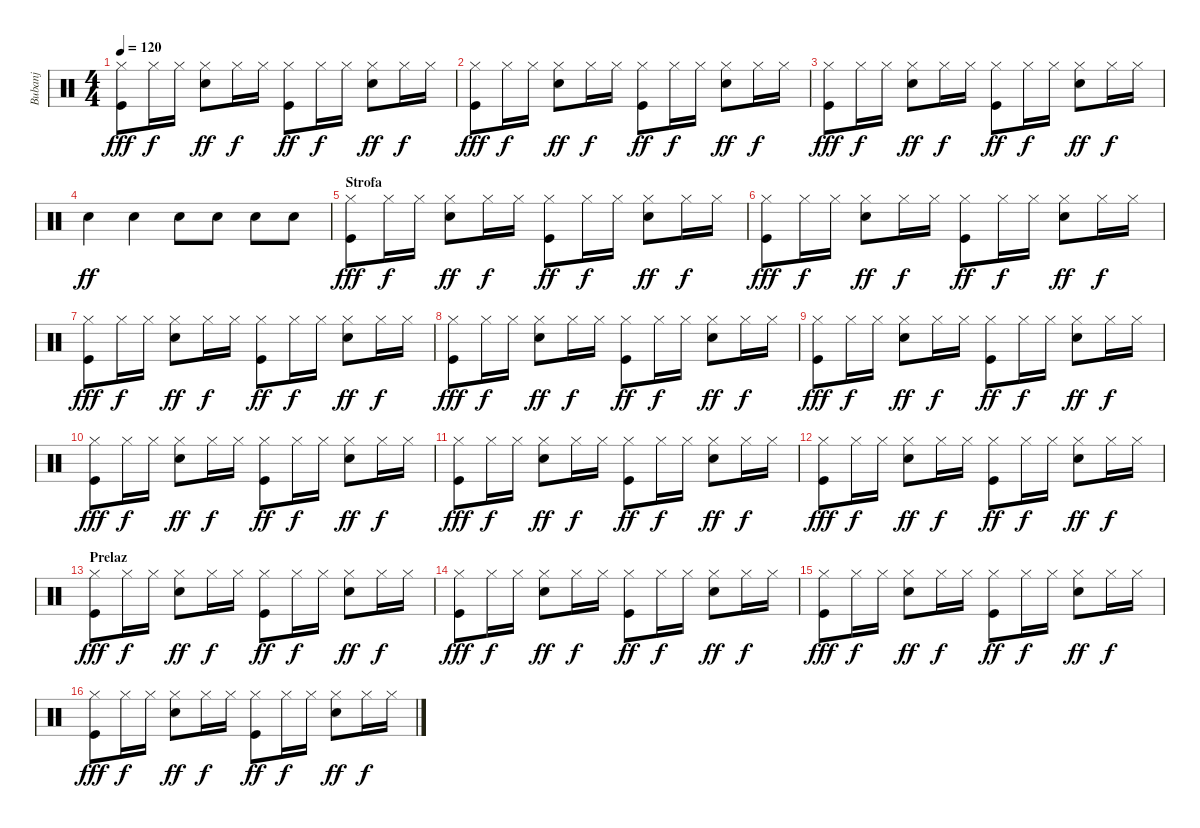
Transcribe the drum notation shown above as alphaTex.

\track ("Bubanj" "Bubanj") {instrument percussion}
\staff {score}
\articulation defaults
\ts (4 4)
\tempo 120
\clef neutral
\ks c
("Kick (hit)" "Hi-Hat (closed)").8{dy fff} "Hi-Hat (closed)".16{dy f} "Hi-Hat (closed)".16 ("Electric Snare (hit)" "Hi-Hat (closed)").8{dy ff} "Hi-Hat (closed)".16{dy f} "Hi-Hat (closed)".16 ("Kick (hit)" "Hi-Hat (closed)").8{dy ff} "Hi-Hat (closed)".16{dy f} "Hi-Hat (closed)".16 ("Electric Snare (hit)" "Hi-Hat (closed)").8{dy ff} "Hi-Hat (closed)".16{dy f} "Hi-Hat (closed)".16 |
("Kick (hit)" "Hi-Hat (closed)").8{dy fff} "Hi-Hat (closed)".16{dy f} "Hi-Hat (closed)".16 ("Electric Snare (hit)" "Hi-Hat (closed)").8{dy ff} "Hi-Hat (closed)".16{dy f} "Hi-Hat (closed)".16 ("Kick (hit)" "Hi-Hat (closed)").8{dy ff} "Hi-Hat (closed)".16{dy f} "Hi-Hat (closed)".16 ("Electric Snare (hit)" "Hi-Hat (closed)").8{dy ff} "Hi-Hat (closed)".16{dy f} "Hi-Hat (closed)".16 |
("Kick (hit)" "Hi-Hat (closed)").8{dy fff} "Hi-Hat (closed)".16{dy f} "Hi-Hat (closed)".16 ("Electric Snare (hit)" "Hi-Hat (closed)").8{dy ff} "Hi-Hat (closed)".16{dy f} "Hi-Hat (closed)".16 ("Kick (hit)" "Hi-Hat (closed)").8{dy ff} "Hi-Hat (closed)".16{dy f} "Hi-Hat (closed)".16 ("Electric Snare (hit)" "Hi-Hat (closed)").8{dy ff} "Hi-Hat (closed)".16{dy f} "Hi-Hat (closed)".16 |
"Electric Snare (hit)".4{dy ff} "Electric Snare (hit)".4 "Electric Snare (hit)".8 "Electric Snare (hit)".8 "Electric Snare (hit)".8 "Electric Snare (hit)".8 |
\section ("" "Strofa")
("Kick (hit)" "Hi-Hat (closed)").8{dy fff} "Hi-Hat (closed)".16{dy f} "Hi-Hat (closed)".16 ("Electric Snare (hit)" "Hi-Hat (closed)").8{dy ff} "Hi-Hat (closed)".16{dy f} "Hi-Hat (closed)".16 ("Kick (hit)" "Hi-Hat (closed)").8{dy ff} "Hi-Hat (closed)".16{dy f} "Hi-Hat (closed)".16 ("Electric Snare (hit)" "Hi-Hat (closed)").8{dy ff} "Hi-Hat (closed)".16{dy f} "Hi-Hat (closed)".16 |
("Kick (hit)" "Hi-Hat (closed)").8{dy fff} "Hi-Hat (closed)".16{dy f} "Hi-Hat (closed)".16 ("Electric Snare (hit)" "Hi-Hat (closed)").8{dy ff} "Hi-Hat (closed)".16{dy f} "Hi-Hat (closed)".16 ("Kick (hit)" "Hi-Hat (closed)").8{dy ff} "Hi-Hat (closed)".16{dy f} "Hi-Hat (closed)".16 ("Electric Snare (hit)" "Hi-Hat (closed)").8{dy ff} "Hi-Hat (closed)".16{dy f} "Hi-Hat (closed)".16 |
("Kick (hit)" "Hi-Hat (closed)").8{dy fff} "Hi-Hat (closed)".16{dy f} "Hi-Hat (closed)".16 ("Electric Snare (hit)" "Hi-Hat (closed)").8{dy ff} "Hi-Hat (closed)".16{dy f} "Hi-Hat (closed)".16 ("Kick (hit)" "Hi-Hat (closed)").8{dy ff} "Hi-Hat (closed)".16{dy f} "Hi-Hat (closed)".16 ("Electric Snare (hit)" "Hi-Hat (closed)").8{dy ff} "Hi-Hat (closed)".16{dy f} "Hi-Hat (closed)".16 |
("Kick (hit)" "Hi-Hat (closed)").8{dy fff} "Hi-Hat (closed)".16{dy f} "Hi-Hat (closed)".16 ("Electric Snare (hit)" "Hi-Hat (closed)").8{dy ff} "Hi-Hat (closed)".16{dy f} "Hi-Hat (closed)".16 ("Kick (hit)" "Hi-Hat (closed)").8{dy ff} "Hi-Hat (closed)".16{dy f} "Hi-Hat (closed)".16 ("Electric Snare (hit)" "Hi-Hat (closed)").8{dy ff} "Hi-Hat (closed)".16{dy f} "Hi-Hat (closed)".16 |
("Kick (hit)" "Hi-Hat (closed)").8{dy fff} "Hi-Hat (closed)".16{dy f} "Hi-Hat (closed)".16 ("Electric Snare (hit)" "Hi-Hat (closed)").8{dy ff} "Hi-Hat (closed)".16{dy f} "Hi-Hat (closed)".16 ("Kick (hit)" "Hi-Hat (closed)").8{dy ff} "Hi-Hat (closed)".16{dy f} "Hi-Hat (closed)".16 ("Electric Snare (hit)" "Hi-Hat (closed)").8{dy ff} "Hi-Hat (closed)".16{dy f} "Hi-Hat (closed)".16 |
("Kick (hit)" "Hi-Hat (closed)").8{dy fff} "Hi-Hat (closed)".16{dy f} "Hi-Hat (closed)".16 ("Electric Snare (hit)" "Hi-Hat (closed)").8{dy ff} "Hi-Hat (closed)".16{dy f} "Hi-Hat (closed)".16 ("Kick (hit)" "Hi-Hat (closed)").8{dy ff} "Hi-Hat (closed)".16{dy f} "Hi-Hat (closed)".16 ("Electric Snare (hit)" "Hi-Hat (closed)").8{dy ff} "Hi-Hat (closed)".16{dy f} "Hi-Hat (closed)".16 |
("Kick (hit)" "Hi-Hat (closed)").8{dy fff} "Hi-Hat (closed)".16{dy f} "Hi-Hat (closed)".16 ("Electric Snare (hit)" "Hi-Hat (closed)").8{dy ff} "Hi-Hat (closed)".16{dy f} "Hi-Hat (closed)".16 ("Kick (hit)" "Hi-Hat (closed)").8{dy ff} "Hi-Hat (closed)".16{dy f} "Hi-Hat (closed)".16 ("Electric Snare (hit)" "Hi-Hat (closed)").8{dy ff} "Hi-Hat (closed)".16{dy f} "Hi-Hat (closed)".16 |
("Kick (hit)" "Hi-Hat (closed)").8{dy fff} "Hi-Hat (closed)".16{dy f} "Hi-Hat (closed)".16 ("Electric Snare (hit)" "Hi-Hat (closed)").8{dy ff} "Hi-Hat (closed)".16{dy f} "Hi-Hat (closed)".16 ("Kick (hit)" "Hi-Hat (closed)").8{dy ff} "Hi-Hat (closed)".16{dy f} "Hi-Hat (closed)".16 ("Electric Snare (hit)" "Hi-Hat (closed)").8{dy ff} "Hi-Hat (closed)".16{dy f} "Hi-Hat (closed)".16 |
\section ("" "Prelaz")
("Kick (hit)" "Hi-Hat (closed)").8{dy fff} "Hi-Hat (closed)".16{dy f} "Hi-Hat (closed)".16 ("Electric Snare (hit)" "Hi-Hat (closed)").8{dy ff} "Hi-Hat (closed)".16{dy f} "Hi-Hat (closed)".16 ("Kick (hit)" "Hi-Hat (closed)").8{dy ff} "Hi-Hat (closed)".16{dy f} "Hi-Hat (closed)".16 ("Electric Snare (hit)" "Hi-Hat (closed)").8{dy ff} "Hi-Hat (closed)".16{dy f} "Hi-Hat (closed)".16 |
("Kick (hit)" "Hi-Hat (closed)").8{dy fff} "Hi-Hat (closed)".16{dy f} "Hi-Hat (closed)".16 ("Electric Snare (hit)" "Hi-Hat (closed)").8{dy ff} "Hi-Hat (closed)".16{dy f} "Hi-Hat (closed)".16 ("Kick (hit)" "Hi-Hat (closed)").8{dy ff} "Hi-Hat (closed)".16{dy f} "Hi-Hat (closed)".16 ("Electric Snare (hit)" "Hi-Hat (closed)").8{dy ff} "Hi-Hat (closed)".16{dy f} "Hi-Hat (closed)".16 |
("Kick (hit)" "Hi-Hat (closed)").8{dy fff} "Hi-Hat (closed)".16{dy f} "Hi-Hat (closed)".16 ("Electric Snare (hit)" "Hi-Hat (closed)").8{dy ff} "Hi-Hat (closed)".16{dy f} "Hi-Hat (closed)".16 ("Kick (hit)" "Hi-Hat (closed)").8{dy ff} "Hi-Hat (closed)".16{dy f} "Hi-Hat (closed)".16 ("Electric Snare (hit)" "Hi-Hat (closed)").8{dy ff} "Hi-Hat (closed)".16{dy f} "Hi-Hat (closed)".16 |
("Kick (hit)" "Hi-Hat (closed)").8{dy fff} "Hi-Hat (closed)".16{dy f} "Hi-Hat (closed)".16 ("Electric Snare (hit)" "Hi-Hat (closed)").8{dy ff} "Hi-Hat (closed)".16{dy f} "Hi-Hat (closed)".16 ("Kick (hit)" "Hi-Hat (closed)").8{dy ff} "Hi-Hat (closed)".16{dy f} "Hi-Hat (closed)".16 ("Electric Snare (hit)" "Hi-Hat (closed)").8{dy ff} "Hi-Hat (closed)".16{dy f} "Hi-Hat (closed)".16
